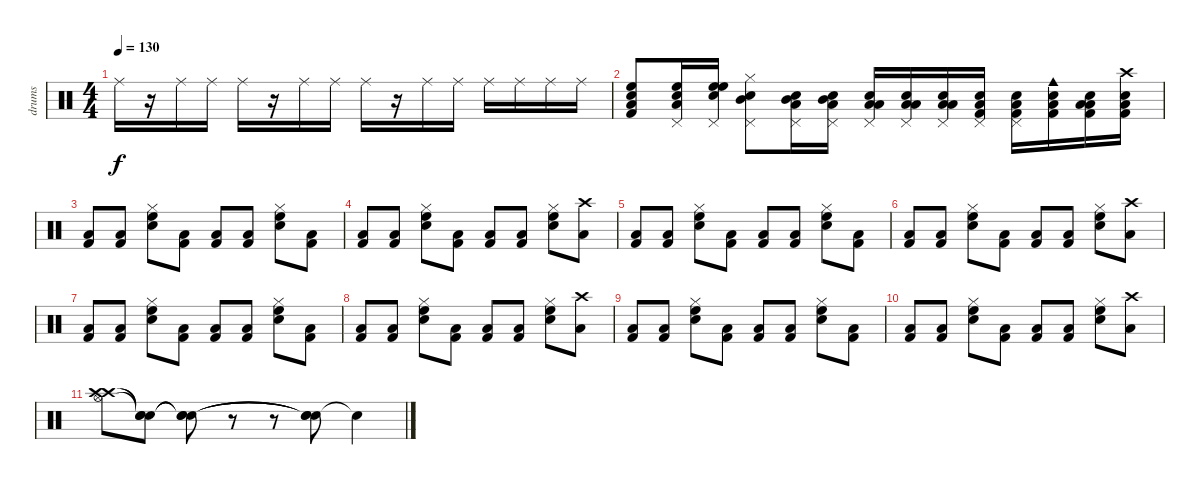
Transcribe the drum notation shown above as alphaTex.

\track ("drums" "drums") {instrument percussion}
\staff {score}
\articulation defaults
\ts (4 4)
\tempo 130
\clef neutral
\ks c "Ride (middle)".16{dy f}
r.16 "Ride (middle)".16 "Ride (middle)".16 "Ride (middle)".16 r.16 "Ride (middle)".16 "Ride (middle)".16 "Ride (middle)".16 r.16 "Ride (middle)".16 "Ride (middle)".16 "Ride (middle)".16 "Ride (middle)".16 "Ride (middle)".16 "Ride (middle)".16 |
("High Floor Tom (hit)" "Low Tom (hit)" "Snare (hit) 2" "Kick (hit) 2").8 ("High Floor Tom (hit)" "Low Tom (hit)" "Snare (hit) 2" "Pedal Hi-Hat (hit)").16 ("High Floor Tom (hit)" "High Floor Tom (hit)" "Snare (hit) 2" "Pedal Hi-Hat (hit)").16 ("Mid Tom (hit)" "Hi-Hat (closed)" "Snare (hit) 2" "Pedal Hi-Hat (hit)").8 ("Mid Tom (hit)" "Low Tom (hit)" "Snare (hit) 2" "Pedal Hi-Hat (hit)").16 ("Mid Tom (hit)" "Low Tom (hit)" "Snare (hit) 2" "Pedal Hi-Hat (hit)").16 ("Low Tom (hit)" "Low Tom (hit)" "Snare (hit) 2" "Pedal Hi-Hat (hit)").16 ("Low Tom (hit)" "Low Tom (hit)" "Snare (hit) 2" "Pedal Hi-Hat (hit)").16 ("Low Tom (hit)" "Low Tom (hit)" "Snare (hit) 2" "Pedal Hi-Hat (hit)").16 ("Low Tom (hit)" "Kick (hit) 2" "Snare (hit) 2" "Pedal Hi-Hat (hit)").16 ("Low Floor Tom (hit)" "Kick (hit) 2" "Snare (hit) 2" "Pedal Hi-Hat (hit)").16 ("Low Floor Tom (hit)" "Cowbell medium (hit)" "Snare (hit) 2" "Kick (hit) 2").16 ("Low Floor Tom (hit)" "Low Floor Tom (hit)" "Snare (hit) 2" "Kick (hit) 2").16 ("Low Floor Tom (hit)" "Crash high (hit)" "Snare (hit) 2" "Kick (hit) 2").16 |
("Kick (hit) 2" "Low Tom (hit)").8 ("Kick (hit) 2" "Low Tom (hit)").8 ("Hi-Hat (closed)" "High Floor Tom (hit)" "Snare (hit) 2").8 ("Kick (hit) 2" "Low Tom (hit)").8 ("Kick (hit) 2" "Low Tom (hit)").8 ("Kick (hit) 2" "Low Tom (hit)").8 ("Hi-Hat (closed)" "High Floor Tom (hit)" "Snare (hit) 2").8 ("Kick (hit) 2" "Low Tom (hit)").8 |
("Kick (hit) 2" "Low Tom (hit)").8 ("Kick (hit) 2" "Low Tom (hit)").8 ("Hi-Hat (closed)" "High Floor Tom (hit)" "Snare (hit) 2").8 ("Kick (hit) 2" "Low Tom (hit)").8 ("Kick (hit) 2" "Low Tom (hit)").8 ("Kick (hit) 2" "Low Tom (hit)").8 ("Hi-Hat (closed)" "High Floor Tom (hit)" "Snare (hit) 2").8 ("Crash high (hit)" "Low Tom (hit)").8 |
("Kick (hit) 2" "Low Tom (hit)").8 ("Kick (hit) 2" "Low Tom (hit)").8 ("Hi-Hat (closed)" "High Floor Tom (hit)" "Snare (hit) 2").8 ("Kick (hit) 2" "Low Tom (hit)").8 ("Kick (hit) 2" "Low Tom (hit)").8 ("Kick (hit) 2" "Low Tom (hit)").8 ("Hi-Hat (closed)" "High Floor Tom (hit)" "Snare (hit) 2").8 ("Kick (hit) 2" "Low Tom (hit)").8 |
("Kick (hit) 2" "Low Tom (hit)").8 ("Kick (hit) 2" "Low Tom (hit)").8 ("Hi-Hat (closed)" "High Floor Tom (hit)" "Snare (hit) 2").8 ("Kick (hit) 2" "Low Tom (hit)").8 ("Kick (hit) 2" "Low Tom (hit)").8 ("Kick (hit) 2" "Low Tom (hit)").8 ("Hi-Hat (closed)" "High Floor Tom (hit)" "Snare (hit) 2").8 ("Crash high (hit)" "Low Tom (hit)").8 |
("Kick (hit) 2" "Low Tom (hit)").8 ("Kick (hit) 2" "Low Tom (hit)").8 ("Hi-Hat (closed)" "High Floor Tom (hit)" "Snare (hit) 2").8 ("Kick (hit) 2" "Low Tom (hit)").8 ("Kick (hit) 2" "Low Tom (hit)").8 ("Kick (hit) 2" "Low Tom (hit)").8 ("Hi-Hat (closed)" "High Floor Tom (hit)" "Snare (hit) 2").8 ("Kick (hit) 2" "Low Tom (hit)").8 |
("Kick (hit) 2" "Low Tom (hit)").8 ("Kick (hit) 2" "Low Tom (hit)").8 ("Hi-Hat (closed)" "High Floor Tom (hit)" "Snare (hit) 2").8 ("Kick (hit) 2" "Low Tom (hit)").8 ("Kick (hit) 2" "Low Tom (hit)").8 ("Kick (hit) 2" "Low Tom (hit)").8 ("Hi-Hat (closed)" "High Floor Tom (hit)" "Snare (hit) 2").8 ("Crash high (hit)" "Low Tom (hit)").8 |
("Kick (hit) 2" "Low Tom (hit)").8 ("Kick (hit) 2" "Low Tom (hit)").8 ("Hi-Hat (closed)" "High Floor Tom (hit)" "Snare (hit) 2").8 ("Kick (hit) 2" "Low Tom (hit)").8 ("Kick (hit) 2" "Low Tom (hit)").8 ("Kick (hit) 2" "Low Tom (hit)").8 ("Hi-Hat (closed)" "High Floor Tom (hit)" "Snare (hit) 2").8 ("Kick (hit) 2" "Low Tom (hit)").8 |
("Kick (hit) 2" "Low Tom (hit)").8 ("Kick (hit) 2" "Low Tom (hit)").8 ("Hi-Hat (closed)" "High Floor Tom (hit)" "Snare (hit) 2").8 ("Kick (hit) 2" "Low Tom (hit)").8 ("Kick (hit) 2" "Low Tom (hit)").8 ("Kick (hit) 2" "Low Tom (hit)").8 ("Hi-Hat (closed)" "High Floor Tom (hit)" "Snare (hit) 2").8 ("Crash high (hit)" "Low Tom (hit)").8 |
("Crash high (hit)" "Crash high (hit)" "Hi-Hat (open)").8 ("Snare (hit)"{t} "Snare (hit)"{t} "Snare (hit)"{t}).8 ("Snare (hit)"{t} "Snare (hit)"{t} "Snare (hit)"{t}).8 r.8 r.8 ("Snare (hit)"{t} "Snare (hit)"{t} "Snare (hit)"{t}).8 "Snare (hit)"{t}.4
